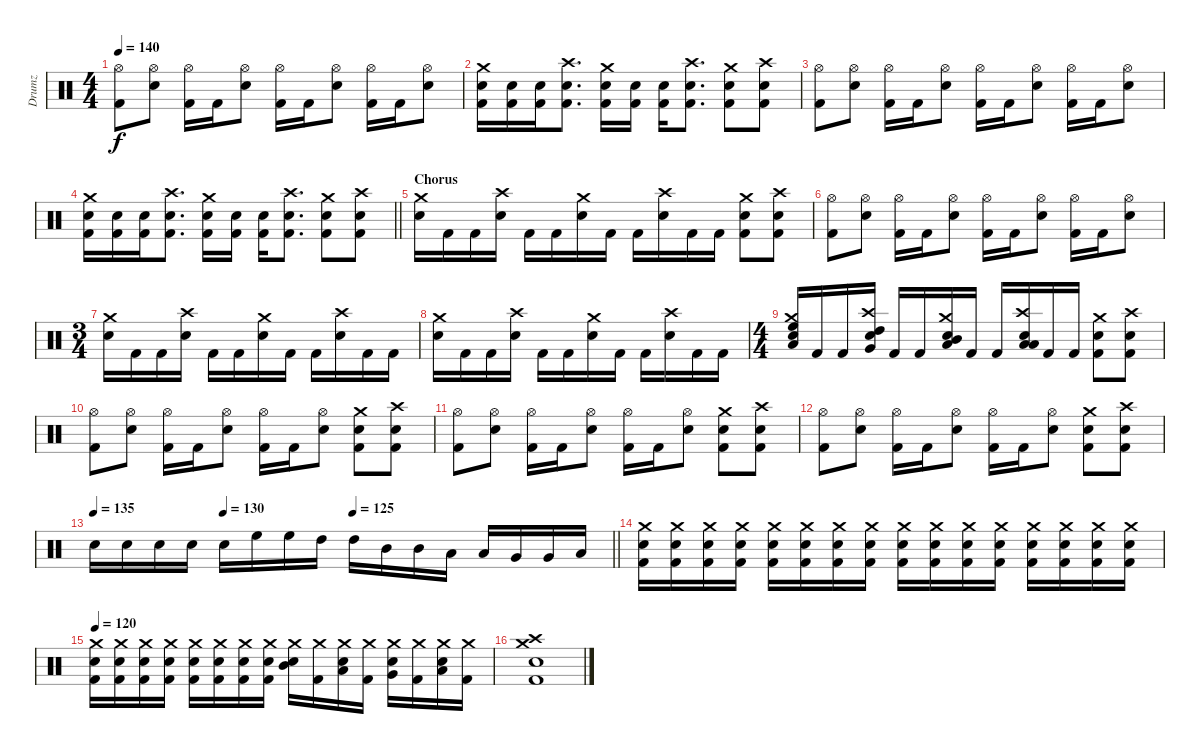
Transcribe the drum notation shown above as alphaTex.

\track ("Drumz" "Drumz") {instrument percussion}
\staff {score}
\articulation defaults
\ts (4 4)
\tempo 140
\clef neutral
\ks c
("Hi-Hat (open)" "Kick (hit) 2").8{dy f} ("Hi-Hat (open)" "Electric Snare (hit)").8 ("Hi-Hat (open)" "Kick (hit) 2").16 "Kick (hit) 2".16 ("Hi-Hat (open)" "Electric Snare (hit)").8 ("Hi-Hat (open)" "Kick (hit) 2").16 "Kick (hit) 2".16 ("Hi-Hat (open)" "Electric Snare (hit)").8 ("Hi-Hat (open)" "Kick (hit) 2").16 "Kick (hit) 2".16 ("Hi-Hat (open)" "Electric Snare (hit)").8 |
("Crash medium (hit)" "Electric Snare (hit)" "Kick (hit) 2").16 ("Electric Snare (hit)" "Kick (hit) 2").16 ("Electric Snare (hit)" "Kick (hit) 2").16 ("Crash high (hit)" "Electric Snare (hit)" "Kick (hit) 2").8{d} ("Crash medium (hit)" "Electric Snare (hit)" "Kick (hit) 2").16 ("Electric Snare (hit)" "Kick (hit) 2").16 ("Electric Snare (hit)" "Kick (hit) 2").16 ("Crash high (hit)" "Electric Snare (hit)" "Kick (hit) 2").8{d} ("Crash medium (hit)" "Electric Snare (hit)" "Kick (hit) 2").8 ("Crash high (hit)" "Electric Snare (hit)" "Kick (hit) 2").8 |
("Hi-Hat (open)" "Kick (hit) 2").8 ("Hi-Hat (open)" "Electric Snare (hit)").8 ("Hi-Hat (open)" "Kick (hit) 2").16 "Kick (hit) 2".16 ("Hi-Hat (open)" "Electric Snare (hit)").8 ("Hi-Hat (open)" "Kick (hit) 2").16 "Kick (hit) 2".16 ("Hi-Hat (open)" "Electric Snare (hit)").8 ("Hi-Hat (open)" "Kick (hit) 2").16 "Kick (hit) 2".16 ("Hi-Hat (open)" "Electric Snare (hit)").8 |
\barLineRight lightlight
("Crash medium (hit)" "Electric Snare (hit)" "Kick (hit) 2").16 ("Electric Snare (hit)" "Kick (hit) 2").16 ("Electric Snare (hit)" "Kick (hit) 2").16 ("Crash high (hit)" "Electric Snare (hit)" "Kick (hit) 2").8{d} ("Crash medium (hit)" "Electric Snare (hit)" "Kick (hit) 2").16 ("Electric Snare (hit)" "Kick (hit) 2").16 ("Electric Snare (hit)" "Kick (hit) 2").16 ("Crash high (hit)" "Electric Snare (hit)" "Kick (hit) 2").8{d} ("Crash medium (hit)" "Electric Snare (hit)" "Kick (hit) 2").8 ("Crash high (hit)" "Electric Snare (hit)" "Kick (hit) 2").8 |
\section ("" "Chorus")
("Crash medium (hit)" "Electric Snare (hit)").16 "Kick (hit) 2".16 "Kick (hit) 2".16 ("Crash high (hit)" "Electric Snare (hit)").16 "Kick (hit) 2".16 "Kick (hit) 2".16 ("Crash medium (hit)" "Electric Snare (hit)").16 "Kick (hit) 2".16 "Kick (hit) 2".16 ("Crash high (hit)" "Electric Snare (hit)").16 "Kick (hit) 2".16 "Kick (hit) 2".16 ("Crash medium (hit)" "Electric Snare (hit)" "Kick (hit) 2").8 ("Crash high (hit)" "Electric Snare (hit)" "Kick (hit) 2").8 |
("Hi-Hat (open)" "Kick (hit) 2").8 ("Hi-Hat (open)" "Electric Snare (hit)").8 ("Hi-Hat (open)" "Kick (hit) 2").16 "Kick (hit) 2".16 ("Hi-Hat (open)" "Electric Snare (hit)").8 ("Hi-Hat (open)" "Kick (hit) 2").16 "Kick (hit) 2".16 ("Hi-Hat (open)" "Electric Snare (hit)").8 ("Hi-Hat (open)" "Kick (hit) 2").16 "Kick (hit) 2".16 ("Hi-Hat (open)" "Electric Snare (hit)").8 |
\ts (3 4)
("Crash medium (hit)" "Electric Snare (hit)").16 "Kick (hit) 2".16 "Kick (hit) 2".16 ("Crash high (hit)" "Electric Snare (hit)").16 "Kick (hit) 2".16 "Kick (hit) 2".16 ("Crash medium (hit)" "Electric Snare (hit)").16 "Kick (hit) 2".16 "Kick (hit) 2".16 ("Crash high (hit)" "Electric Snare (hit)").16 "Kick (hit) 2".16 "Kick (hit) 2".16 |
("Crash medium (hit)" "Electric Snare (hit)").16 "Kick (hit) 2".16 "Kick (hit) 2".16 ("Crash high (hit)" "Electric Snare (hit)").16 "Kick (hit) 2".16 "Kick (hit) 2".16 ("Crash medium (hit)" "Electric Snare (hit)").16 "Kick (hit) 2".16 "Kick (hit) 2".16 ("Crash high (hit)" "Electric Snare (hit)").16 "Kick (hit) 2".16 "Kick (hit) 2".16 |
\ts (4 4)
("Crash medium (hit)" "High Floor Tom (hit)" "Low Tom (hit)" "Electric Snare (hit)").16 "Kick (hit) 2".16 "Kick (hit) 2".16 ("Crash high (hit)" "High Tom (hit)" "Very Low Tom (hit)" "Electric Snare (hit)").16 "Kick (hit) 2".16 "Kick (hit) 2".16 ("Crash medium (hit)" "Mid Tom (hit)" "Low Floor Tom (hit)" "Electric Snare (hit)").16 "Kick (hit) 2".16 "Kick (hit) 2".16 ("Crash high (hit)" "Low Tom (hit)" "Low Floor Tom (hit)" "Electric Snare (hit)").16 "Kick (hit) 2".16 "Kick (hit) 2".16 ("Crash medium (hit)" "Electric Snare (hit)" "Kick (hit) 2").8 ("Crash high (hit)" "Electric Snare (hit)" "Kick (hit) 2").8 |
("Hi-Hat (open)" "Kick (hit) 2").8 ("Hi-Hat (open)" "Electric Snare (hit)").8 ("Hi-Hat (open)" "Kick (hit) 2").16 "Kick (hit) 2".16 ("Hi-Hat (open)" "Electric Snare (hit)").8 ("Hi-Hat (open)" "Kick (hit) 2").16 "Kick (hit) 2".16 ("Hi-Hat (open)" "Electric Snare (hit)").8 ("Crash medium (hit)" "Electric Snare (hit)" "Kick (hit) 2").8 ("Crash high (hit)" "Electric Snare (hit)" "Kick (hit) 2").8 |
("Hi-Hat (open)" "Kick (hit) 2").8 ("Hi-Hat (open)" "Electric Snare (hit)").8 ("Hi-Hat (open)" "Kick (hit) 2").16 "Kick (hit) 2".16 ("Hi-Hat (open)" "Electric Snare (hit)").8 ("Hi-Hat (open)" "Kick (hit) 2").16 "Kick (hit) 2".16 ("Hi-Hat (open)" "Electric Snare (hit)").8 ("Crash medium (hit)" "Electric Snare (hit)" "Kick (hit) 2").8 ("Crash high (hit)" "Electric Snare (hit)" "Kick (hit) 2").8 |
("Hi-Hat (open)" "Kick (hit) 2").8 ("Hi-Hat (open)" "Electric Snare (hit)").8 ("Hi-Hat (open)" "Kick (hit) 2").16 "Kick (hit) 2".16 ("Hi-Hat (open)" "Electric Snare (hit)").8 ("Hi-Hat (open)" "Kick (hit) 2").16 "Kick (hit) 2".16 ("Hi-Hat (open)" "Electric Snare (hit)").8 ("Crash medium (hit)" "Electric Snare (hit)" "Kick (hit) 2").8 ("Crash high (hit)" "Electric Snare (hit)" "Kick (hit) 2").8 |
\tempo 135
\tempo (130 0.25)
\tempo (125 0.5)
\barLineRight lightlight "Electric Snare (hit)".16 "Electric Snare (hit)".16 "Electric Snare (hit)".16 "Electric Snare (hit)".16 "Electric Snare (hit)".16 "High Floor Tom (hit)".16 "High Floor Tom (hit)".16 "High Tom (hit)".16 "High Tom (hit)".16 "Mid Tom (hit)".16 "Mid Tom (hit)".16 "Low Tom (hit)".16 "Low Tom (hit)".16 "Very Low Tom (hit)".16 "Very Low Tom (hit)".16 "Low Floor Tom (hit)".16
|
("Crash medium (hit)" "Electric Snare (hit)" "Kick (hit) 2").16 ("Crash medium (hit)" "Electric Snare (hit)" "Kick (hit) 2").16 ("Crash medium (hit)" "Electric Snare (hit)" "Kick (hit) 2").16 ("Crash medium (hit)" "Electric Snare (hit)" "Kick (hit) 2").16 ("Crash medium (hit)" "Electric Snare (hit)" "Kick (hit) 2").16 ("Crash medium (hit)" "Electric Snare (hit)" "Kick (hit) 2").16 ("Crash medium (hit)" "Electric Snare (hit)" "Kick (hit) 2").16 ("Crash medium (hit)" "Electric Snare (hit)" "Kick (hit) 2").16 ("Crash medium (hit)" "Electric Snare (hit)" "Kick (hit) 2").16 ("Crash medium (hit)" "Electric Snare (hit)" "Kick (hit) 2").16 ("Crash medium (hit)" "Electric Snare (hit)" "Kick (hit) 2").16 ("Crash medium (hit)" "Electric Snare (hit)" "Kick (hit) 2").16 ("Crash medium (hit)" "Electric Snare (hit)" "Kick (hit) 2").16 ("Crash medium (hit)" "Electric Snare (hit)" "Kick (hit) 2").16 ("Crash medium (hit)" "Electric Snare (hit)" "Kick (hit) 2").16 ("Crash medium (hit)" "Electric Snare (hit)" "Kick (hit) 2").16 |
\tempo 120
("Crash medium (hit)" "Electric Snare (hit)" "Kick (hit) 2").16 ("Crash medium (hit)" "Electric Snare (hit)" "Kick (hit) 2").16 ("Crash medium (hit)" "Electric Snare (hit)" "Kick (hit) 2").16 ("Crash medium (hit)" "Electric Snare (hit)" "Kick (hit) 2").16 ("Crash medium (hit)" "Electric Snare (hit)" "Kick (hit) 2").16 ("Crash medium (hit)" "Electric Snare (hit)" "Kick (hit) 2").16 ("Crash medium (hit)" "Electric Snare (hit)" "Kick (hit) 2").16 ("Crash medium (hit)" "Electric Snare (hit)" "Kick (hit) 2").16 ("Crash medium (hit)" "Mid Tom (hit)" "Electric Snare (hit)").16 ("Crash medium (hit)" "Kick (hit) 2").16 ("Crash medium (hit)" "Low Tom (hit)" "Electric Snare (hit)").16 ("Crash medium (hit)" "Kick (hit) 2").16 ("Crash medium (hit)" "Very Low Tom (hit)" "Electric Snare (hit)").16 ("Crash medium (hit)" "Kick (hit) 2").16 ("Crash medium (hit)" "Low Floor Tom (hit)" "Electric Snare (hit)").16 ("Crash medium (hit)" "Kick (hit) 2").16 |
("Crash medium (hit)" "Crash high (hit)" "Electric Snare (hit)" "Kick (hit) 2").1
